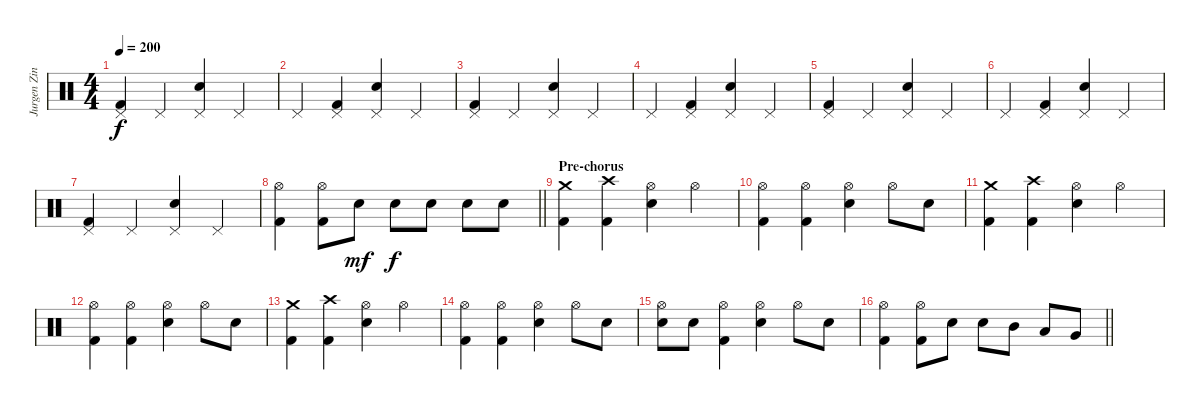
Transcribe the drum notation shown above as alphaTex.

\track ("Jurgen Zink" "Jurgen Zin") {instrument percussion}
\staff {score}
\articulation defaults
\ts (4 4)
\tempo 200
\clef neutral
\ks c
("Pedal Hi-Hat (hit)" "Kick (hit) 2").4{dy f} "Pedal Hi-Hat (hit)".4 ("Pedal Hi-Hat (hit)" "Electric Snare (hit)").4 "Pedal Hi-Hat (hit)".4 |
"Pedal Hi-Hat (hit)".4 ("Pedal Hi-Hat (hit)" "Kick (hit) 2").4 ("Pedal Hi-Hat (hit)" "Electric Snare (hit)").4 "Pedal Hi-Hat (hit)".4 |
("Pedal Hi-Hat (hit)" "Kick (hit) 2").4 "Pedal Hi-Hat (hit)".4 ("Pedal Hi-Hat (hit)" "Electric Snare (hit)").4 "Pedal Hi-Hat (hit)".4 |
"Pedal Hi-Hat (hit)".4 ("Pedal Hi-Hat (hit)" "Kick (hit) 2").4 ("Pedal Hi-Hat (hit)" "Electric Snare (hit)").4 "Pedal Hi-Hat (hit)".4 |
("Pedal Hi-Hat (hit)" "Kick (hit) 2").4 "Pedal Hi-Hat (hit)".4 ("Pedal Hi-Hat (hit)" "Electric Snare (hit)").4 "Pedal Hi-Hat (hit)".4 |
"Pedal Hi-Hat (hit)".4 ("Pedal Hi-Hat (hit)" "Kick (hit) 2").4 ("Pedal Hi-Hat (hit)" "Electric Snare (hit)").4 "Pedal Hi-Hat (hit)".4 |
("Pedal Hi-Hat (hit)" "Kick (hit) 2").4 "Pedal Hi-Hat (hit)".4 ("Pedal Hi-Hat (hit)" "Electric Snare (hit)").4 "Pedal Hi-Hat (hit)".4 |
\barLineRight lightlight
("Hi-Hat (open)" "Kick (hit) 2").4 ("Hi-Hat (open)" "Kick (hit) 2").8 "Electric Snare (hit)".8{dy mf} "Electric Snare (hit)".8{dy f} "Electric Snare (hit)".8 "Electric Snare (hit)".8 "Electric Snare (hit)".8 |
\section ("" "Pre-chorus")
("Crash medium (hit)" "Kick (hit) 2").4 ("Crash high (hit)" "Kick (hit) 2").4 ("Hi-Hat (open)" "Electric Snare (hit)").4 "Hi-Hat (open)".4 |
("Hi-Hat (open)" "Kick (hit) 2").4 ("Hi-Hat (open)" "Kick (hit) 2").4 ("Hi-Hat (open)" "Electric Snare (hit)").4 "Hi-Hat (open)".8 "Electric Snare (hit)".8 |
("Crash medium (hit)" "Kick (hit) 2").4 ("Crash high (hit)" "Kick (hit) 2").4 ("Hi-Hat (open)" "Electric Snare (hit)").4 "Hi-Hat (open)".4 |
("Hi-Hat (open)" "Kick (hit) 2").4 ("Hi-Hat (open)" "Kick (hit) 2").4 ("Hi-Hat (open)" "Electric Snare (hit)").4 "Hi-Hat (open)".8 "Electric Snare (hit)".8 |
("Crash medium (hit)" "Kick (hit) 2").4 ("Crash high (hit)" "Kick (hit) 2").4 ("Hi-Hat (open)" "Electric Snare (hit)").4 "Hi-Hat (open)".4 |
("Hi-Hat (open)" "Kick (hit) 2").4 ("Hi-Hat (open)" "Kick (hit) 2").4 ("Hi-Hat (open)" "Electric Snare (hit)").4 "Hi-Hat (open)".8 "Electric Snare (hit)".8 |
("Hi-Hat (open)" "Electric Snare (hit)").8 "Electric Snare (hit)".8 ("Hi-Hat (open)" "Kick (hit) 2").4 ("Hi-Hat (open)" "Electric Snare (hit)").4 "Hi-Hat (open)".8 "Electric Snare (hit)".8 |
\barLineRight lightlight
("Hi-Hat (open)" "Kick (hit) 2").4 ("Hi-Hat (open)" "Kick (hit) 2").8 "Electric Snare (hit)".8 "Electric Snare (hit)".8 "Mid Tom (hit)".8 "Low Tom (hit)".8 "Very Low Tom (hit)".8
